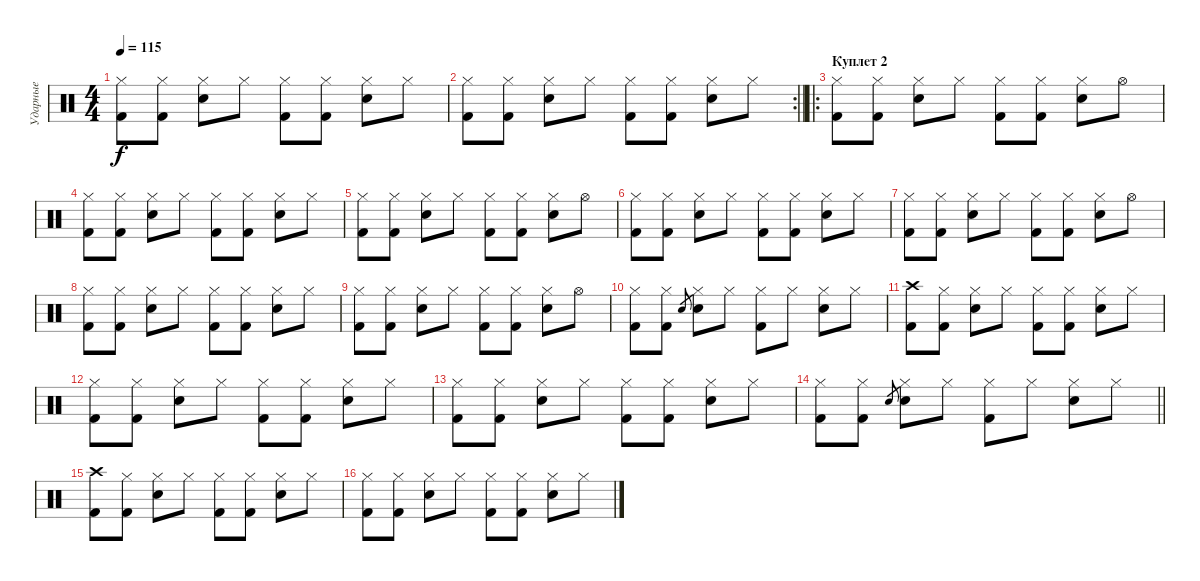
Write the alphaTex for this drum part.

\track ("Ударные" "Ударные") {instrument percussion}
\staff {score}
\articulation defaults
\ts (4 4)
\tempo 115
\clef neutral
\ks c
("Hi-Hat (closed)" "Kick (hit) 2").8{dy f} ("Hi-Hat (closed)" "Kick (hit) 2").8 ("Hi-Hat (closed)" "Snare (hit) 2").8 "Hi-Hat (closed)".8 ("Hi-Hat (closed)" "Kick (hit) 2").8 ("Hi-Hat (closed)" "Kick (hit) 2").8 ("Hi-Hat (closed)" "Snare (hit) 2").8 "Hi-Hat (closed)".8 |
\rc 2
\barLineRight lightlight
("Hi-Hat (closed)" "Kick (hit) 2").8 ("Hi-Hat (closed)" "Kick (hit) 2").8 ("Hi-Hat (closed)" "Snare (hit) 2").8 "Hi-Hat (closed)".8 ("Hi-Hat (closed)" "Kick (hit) 2").8 ("Hi-Hat (closed)" "Kick (hit) 2").8 ("Hi-Hat (closed)" "Snare (hit) 2").8 "Hi-Hat (closed)".8 |
\ro
\section ("" "Куплет 2")
("Hi-Hat (closed)" "Kick (hit) 2").8 ("Hi-Hat (closed)" "Kick (hit) 2").8 ("Hi-Hat (closed)" "Snare (hit) 2").8 "Hi-Hat (closed)".8 ("Hi-Hat (closed)" "Kick (hit) 2").8 ("Hi-Hat (closed)" "Kick (hit) 2").8 ("Hi-Hat (closed)" "Snare (hit) 2").8 "Hi-Hat (open)".8 |
("Hi-Hat (closed)" "Kick (hit) 2").8 ("Hi-Hat (closed)" "Kick (hit) 2").8 ("Hi-Hat (closed)" "Snare (hit) 2").8 "Hi-Hat (closed)".8 ("Hi-Hat (closed)" "Kick (hit) 2").8 ("Hi-Hat (closed)" "Kick (hit) 2").8 ("Hi-Hat (closed)" "Snare (hit) 2").8 "Hi-Hat (closed)".8 |
("Hi-Hat (closed)" "Kick (hit) 2").8 ("Hi-Hat (closed)" "Kick (hit) 2").8 ("Hi-Hat (closed)" "Snare (hit) 2").8 "Hi-Hat (closed)".8 ("Hi-Hat (closed)" "Kick (hit) 2").8 ("Hi-Hat (closed)" "Kick (hit) 2").8 ("Hi-Hat (closed)" "Snare (hit) 2").8 "Hi-Hat (open)".8 |
("Hi-Hat (closed)" "Kick (hit) 2").8 ("Hi-Hat (closed)" "Kick (hit) 2").8 ("Hi-Hat (closed)" "Snare (hit) 2").8 "Hi-Hat (closed)".8 ("Hi-Hat (closed)" "Kick (hit) 2").8 ("Hi-Hat (closed)" "Kick (hit) 2").8 ("Hi-Hat (closed)" "Snare (hit) 2").8 "Hi-Hat (closed)".8 |
("Hi-Hat (closed)" "Kick (hit) 2").8 ("Hi-Hat (closed)" "Kick (hit) 2").8 ("Hi-Hat (closed)" "Snare (hit) 2").8 "Hi-Hat (closed)".8 ("Hi-Hat (closed)" "Kick (hit) 2").8 ("Hi-Hat (closed)" "Kick (hit) 2").8 ("Hi-Hat (closed)" "Snare (hit) 2").8 "Hi-Hat (open)".8 |
("Hi-Hat (closed)" "Kick (hit) 2").8 ("Hi-Hat (closed)" "Kick (hit) 2").8 ("Hi-Hat (closed)" "Snare (hit) 2").8 "Hi-Hat (closed)".8 ("Hi-Hat (closed)" "Kick (hit) 2").8 ("Hi-Hat (closed)" "Kick (hit) 2").8 ("Hi-Hat (closed)" "Snare (hit) 2").8 "Hi-Hat (closed)".8 |
("Hi-Hat (closed)" "Kick (hit) 2").8 ("Hi-Hat (closed)" "Kick (hit) 2").8 ("Hi-Hat (closed)" "Snare (hit) 2").8 "Hi-Hat (closed)".8 ("Hi-Hat (closed)" "Kick (hit) 2").8 ("Hi-Hat (closed)" "Kick (hit) 2").8 ("Hi-Hat (closed)" "Snare (hit) 2").8 "Hi-Hat (open)".8 |
("Hi-Hat (closed)" "Kick (hit) 2").8 ("Hi-Hat (closed)" "Kick (hit) 2").8 "Snare (hit) 2".8{gr} ("Hi-Hat (closed)" "Snare (hit) 2").8 "Hi-Hat (closed)".8 ("Hi-Hat (closed)" "Kick (hit) 2").8 "Hi-Hat (closed)".8 ("Hi-Hat (closed)" "Snare (hit) 2").8 "Hi-Hat (closed)".8 |
("Crash high (hit)" "Kick (hit) 2").8 ("Hi-Hat (closed)" "Kick (hit) 2").8 ("Hi-Hat (closed)" "Snare (hit) 2").8 "Hi-Hat (closed)".8 ("Hi-Hat (closed)" "Kick (hit) 2").8 ("Hi-Hat (closed)" "Kick (hit) 2").8 ("Hi-Hat (closed)" "Snare (hit) 2").8 "Hi-Hat (closed)".8 |
("Hi-Hat (closed)" "Kick (hit) 2").8 ("Hi-Hat (closed)" "Kick (hit) 2").8 ("Hi-Hat (closed)" "Snare (hit) 2").8 "Hi-Hat (closed)".8 ("Hi-Hat (closed)" "Kick (hit) 2").8 ("Hi-Hat (closed)" "Kick (hit) 2").8 ("Hi-Hat (closed)" "Snare (hit) 2").8 "Hi-Hat (closed)".8 |
("Hi-Hat (closed)" "Kick (hit) 2").8 ("Hi-Hat (closed)" "Kick (hit) 2").8 ("Hi-Hat (closed)" "Snare (hit) 2").8 "Hi-Hat (closed)".8 ("Hi-Hat (closed)" "Kick (hit) 2").8 ("Hi-Hat (closed)" "Kick (hit) 2").8 ("Hi-Hat (closed)" "Snare (hit) 2").8 "Hi-Hat (closed)".8 |
\barLineRight lightlight
("Hi-Hat (closed)" "Kick (hit) 2").8 ("Hi-Hat (closed)" "Kick (hit) 2").8 "Snare (hit) 2".8{gr} ("Hi-Hat (closed)" "Snare (hit) 2").8 "Hi-Hat (closed)".8 ("Hi-Hat (closed)" "Kick (hit) 2").8 "Hi-Hat (closed)".8 ("Hi-Hat (closed)" "Snare (hit) 2").8 "Hi-Hat (closed)".8 |
("Crash high (hit)" "Kick (hit) 2").8 ("Hi-Hat (closed)" "Kick (hit) 2").8 ("Hi-Hat (closed)" "Snare (hit) 2").8 "Hi-Hat (closed)".8 ("Hi-Hat (closed)" "Kick (hit) 2").8 ("Hi-Hat (closed)" "Kick (hit) 2").8 ("Hi-Hat (closed)" "Snare (hit) 2").8 "Hi-Hat (closed)".8 |
("Hi-Hat (closed)" "Kick (hit) 2").8 ("Hi-Hat (closed)" "Kick (hit) 2").8 ("Hi-Hat (closed)" "Snare (hit) 2").8 "Hi-Hat (closed)".8 ("Hi-Hat (closed)" "Kick (hit) 2").8 ("Hi-Hat (closed)" "Kick (hit) 2").8 ("Hi-Hat (closed)" "Snare (hit) 2").8 "Hi-Hat (closed)".8
